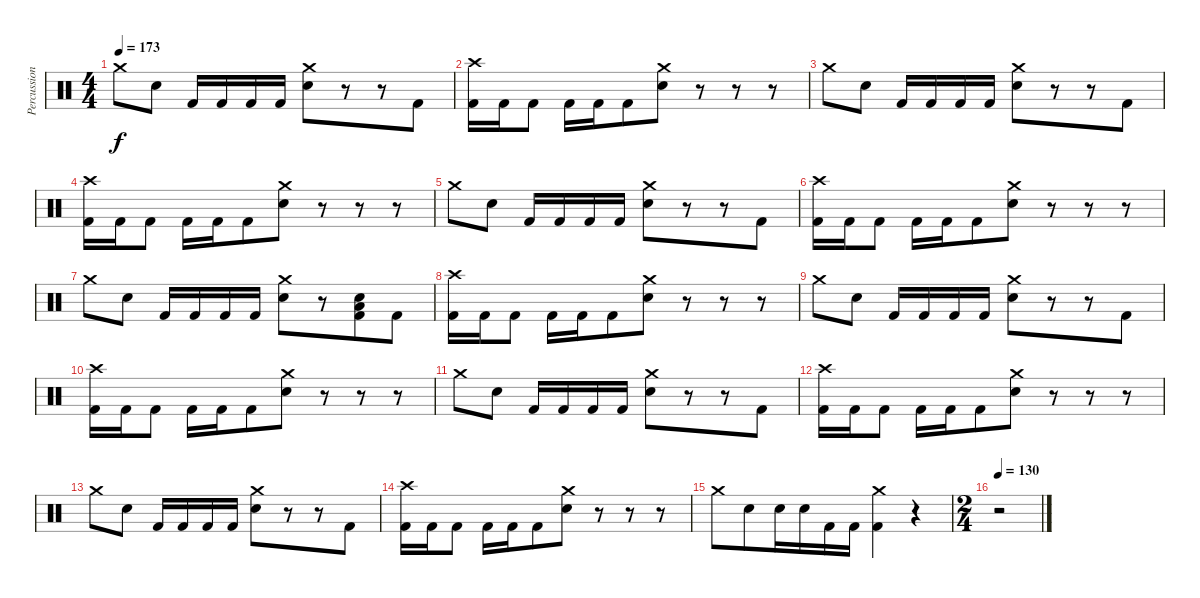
\track ("Percussion" "Percussion") {instrument percussion}
\staff {score}
\articulation defaults
\ts (4 4)
\tempo 173
\clef neutral
\ks c "Crash medium (hit)".8{dy f} "Electric Snare (hit)".8 "Kick (hit) 2".16 "Kick (hit) 2".16 "Kick (hit) 2".16 "Kick (hit) 2".16
("Crash medium (hit)" "Electric Snare (hit)").8{beam merge} r.8{beam merge} r.8{beam merge} "Kick (hit) 2".8 |
("Crash high (hit)" "Kick (hit) 2").16 "Kick (hit) 2".16 "Kick (hit) 2".8 "Kick (hit) 2".16 "Kick (hit) 2".16 "Kick (hit) 2".8{beam merge} ("Crash medium (hit)" "Electric Snare (hit)").8 r.8 r.8 r.8 |
"Crash medium (hit)".8 "Electric Snare (hit)".8 "Kick (hit) 2".16 "Kick (hit) 2".16 "Kick (hit) 2".16 "Kick (hit) 2".16 ("Crash medium (hit)" "Electric Snare (hit)").8{beam merge} r.8{beam merge} r.8{beam merge} "Kick (hit) 2".8 |
("Crash high (hit)" "Kick (hit) 2").16 "Kick (hit) 2".16 "Kick (hit) 2".8 "Kick (hit) 2".16 "Kick (hit) 2".16 "Kick (hit) 2".8{beam merge} ("Crash medium (hit)" "Electric Snare (hit)").8 r.8 r.8 r.8 |
"Crash medium (hit)".8 "Electric Snare (hit)".8 "Kick (hit) 2".16 "Kick (hit) 2".16 "Kick (hit) 2".16 "Kick (hit) 2".16 ("Crash medium (hit)" "Electric Snare (hit)").8{beam merge} r.8{beam merge} r.8{beam merge} "Kick (hit) 2".8 |
("Crash high (hit)" "Kick (hit) 2").16 "Kick (hit) 2".16 "Kick (hit) 2".8 "Kick (hit) 2".16 "Kick (hit) 2".16 "Kick (hit) 2".8{beam merge} ("Crash medium (hit)" "Electric Snare (hit)").8 r.8 r.8 r.8 |
"Crash medium (hit)".8 "Electric Snare (hit)".8 "Kick (hit) 2".16 "Kick (hit) 2".16 "Kick (hit) 2".16 "Kick (hit) 2".16 ("Crash medium (hit)" "Electric Snare (hit)").8{beam merge} r.8{beam merge} ("Electric Snare (hit)" "Low Floor Tom (hit)" "Kick (hit) 2").8{beam merge} "Kick (hit) 2".8 |
("Crash high (hit)" "Kick (hit) 2").16 "Kick (hit) 2".16 "Kick (hit) 2".8 "Kick (hit) 2".16 "Kick (hit) 2".16 "Kick (hit) 2".8{beam merge} ("Crash medium (hit)" "Electric Snare (hit)").8 r.8 r.8 r.8 |
"Crash medium (hit)".8 "Electric Snare (hit)".8 "Kick (hit) 2".16 "Kick (hit) 2".16 "Kick (hit) 2".16 "Kick (hit) 2".16 ("Crash medium (hit)" "Electric Snare (hit)").8{beam merge} r.8{beam merge} r.8{beam merge} "Kick (hit) 2".8 |
("Crash high (hit)" "Kick (hit) 2").16 "Kick (hit) 2".16 "Kick (hit) 2".8 "Kick (hit) 2".16 "Kick (hit) 2".16 "Kick (hit) 2".8{beam merge} ("Crash medium (hit)" "Electric Snare (hit)").8 r.8 r.8 r.8 |
"Crash medium (hit)".8 "Electric Snare (hit)".8 "Kick (hit) 2".16 "Kick (hit) 2".16 "Kick (hit) 2".16 "Kick (hit) 2".16 ("Crash medium (hit)" "Electric Snare (hit)").8{beam merge} r.8{beam merge} r.8{beam merge} "Kick (hit) 2".8 |
("Crash high (hit)" "Kick (hit) 2").16 "Kick (hit) 2".16 "Kick (hit) 2".8 "Kick (hit) 2".16 "Kick (hit) 2".16 "Kick (hit) 2".8{beam merge} ("Crash medium (hit)" "Electric Snare (hit)").8 r.8 r.8 r.8 |
"Crash medium (hit)".8 "Electric Snare (hit)".8 "Kick (hit) 2".16 "Kick (hit) 2".16 "Kick (hit) 2".16 "Kick (hit) 2".16 ("Crash medium (hit)" "Electric Snare (hit)").8{beam merge} r.8{beam merge} r.8{beam merge} "Kick (hit) 2".8 |
("Crash high (hit)" "Kick (hit) 2").16 "Kick (hit) 2".16 "Kick (hit) 2".8 "Kick (hit) 2".16 "Kick (hit) 2".16 "Kick (hit) 2".8{beam merge} ("Crash medium (hit)" "Electric Snare (hit)").8 r.8 r.8 r.8 |
"Crash medium (hit)".8 "Electric Snare (hit)".8{beam merge} "Electric Snare (hit)".16{beam merge} "Electric Snare (hit)".16 "Kick (hit) 2".16 "Kick (hit) 2".16{beam merge} ("Crash medium (hit)" "Kick (hit) 2").4 r.4 |
\ts (2 4)
\tempo 130
r.2
